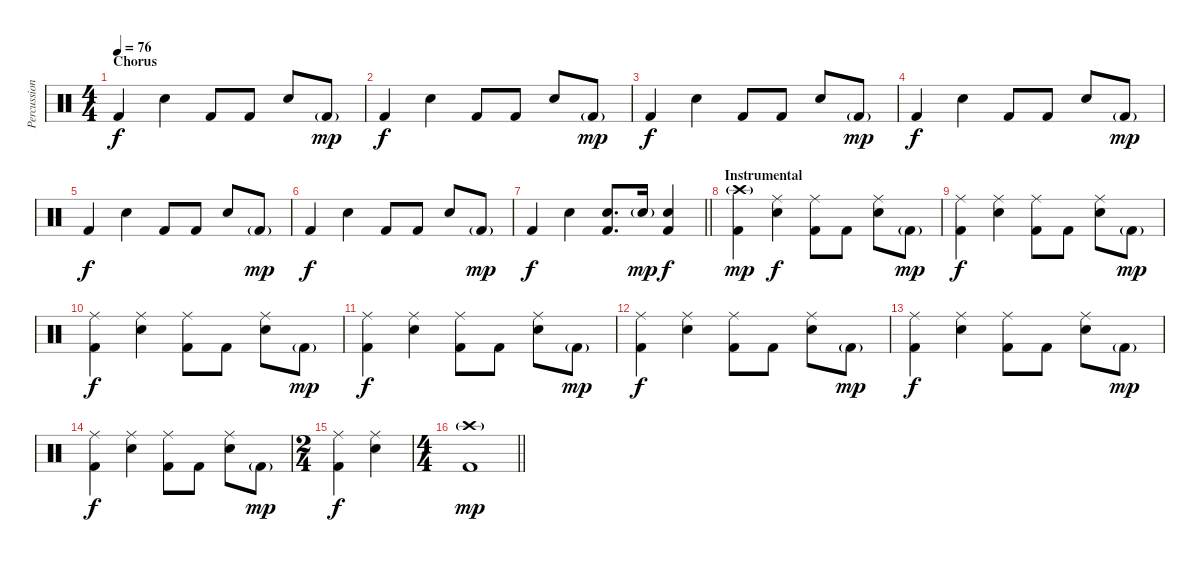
\track ("Percussion" "Percussion") {instrument percussion}
\staff {score}
\articulation defaults
\ts (4 4)
\section ("" "Chorus")
\tempo 76
\clef neutral
\ks c "Kick (hit) 2".4{dy f} "Snare (hit) 2".4 "Kick (hit) 2".8 "Kick (hit) 2".8 "Snare (hit) 2".8 "Kick (hit) 2"{g}.8{dy mp}
|
"Kick (hit) 2".4{dy f} "Snare (hit) 2".4 "Kick (hit) 2".8 "Kick (hit) 2".8 "Snare (hit) 2".8 "Kick (hit) 2"{g}.8{dy mp} |
"Kick (hit) 2".4{dy f} "Snare (hit) 2".4 "Kick (hit) 2".8 "Kick (hit) 2".8 "Snare (hit) 2".8 "Kick (hit) 2"{g}.8{dy mp} |
"Kick (hit) 2".4{dy f} "Snare (hit) 2".4 "Kick (hit) 2".8 "Kick (hit) 2".8 "Snare (hit) 2".8 "Kick (hit) 2"{g}.8{dy mp} |
"Kick (hit) 2".4{dy f} "Snare (hit) 2".4 "Kick (hit) 2".8 "Kick (hit) 2".8 "Snare (hit) 2".8 "Kick (hit) 2"{g}.8{dy mp} |
"Kick (hit) 2".4{dy f} "Snare (hit) 2".4 "Kick (hit) 2".8 "Kick (hit) 2".8 "Snare (hit) 2".8 "Kick (hit) 2"{g}.8{dy mp} |
\barLineRight lightlight "Kick (hit) 2".4{dy f} "Snare (hit) 2".4
("Snare (hit) 2" "Kick (hit) 2").8{d} "Snare (hit) 2"{g}.16{dy mp} ("Snare (hit) 2" "Kick (hit) 2").4{dy f} |
\section ("" "Instrumental")
("Crash high (hit)"{g} "Kick (hit) 2").4{dy mp} ("Ride (middle)" "Snare (hit) 2").4{dy f} ("Ride (middle)" "Kick (hit) 2").8 "Kick (hit) 2".8 ("Ride (middle)" "Snare (hit) 2").8 "Kick (hit) 2"{g}.8{dy mp} |
("Ride (middle)" "Kick (hit) 2").4{dy f} ("Ride (middle)" "Snare (hit) 2").4 ("Ride (middle)" "Kick (hit) 2").8 "Kick (hit) 2".8 ("Ride (middle)" "Snare (hit) 2").8 "Kick (hit) 2"{g}.8{dy mp} |
("Ride (middle)" "Kick (hit) 2").4{dy f} ("Ride (middle)" "Snare (hit) 2").4 ("Ride (middle)" "Kick (hit) 2").8 "Kick (hit) 2".8 ("Ride (middle)" "Snare (hit) 2").8 "Kick (hit) 2"{g}.8{dy mp} |
("Ride (middle)" "Kick (hit) 2").4{dy f} ("Ride (middle)" "Snare (hit) 2").4 ("Ride (middle)" "Kick (hit) 2").8 "Kick (hit) 2".8 ("Ride (middle)" "Snare (hit) 2").8 "Kick (hit) 2"{g}.8{dy mp} |
("Ride (middle)" "Kick (hit) 2").4{dy f} ("Ride (middle)" "Snare (hit) 2").4 ("Ride (middle)" "Kick (hit) 2").8 "Kick (hit) 2".8 ("Ride (middle)" "Snare (hit) 2").8 "Kick (hit) 2"{g}.8{dy mp} |
("Ride (middle)" "Kick (hit) 2").4{dy f} ("Ride (middle)" "Snare (hit) 2").4 ("Ride (middle)" "Kick (hit) 2").8 "Kick (hit) 2".8 ("Ride (middle)" "Snare (hit) 2").8 "Kick (hit) 2"{g}.8{dy mp} |
("Ride (middle)" "Kick (hit) 2").4{dy f} ("Ride (middle)" "Snare (hit) 2").4 ("Ride (middle)" "Kick (hit) 2").8 "Kick (hit) 2".8 ("Ride (middle)" "Snare (hit) 2").8 "Kick (hit) 2"{g}.8{dy mp} |
\ts (2 4)
("Ride (middle)" "Kick (hit) 2").4{dy f} ("Ride (middle)" "Snare (hit) 2").4 |
\ts (4 4)
\barLineRight lightlight
("Crash high (hit)"{g} "Kick (hit) 2").1{dy mp}
